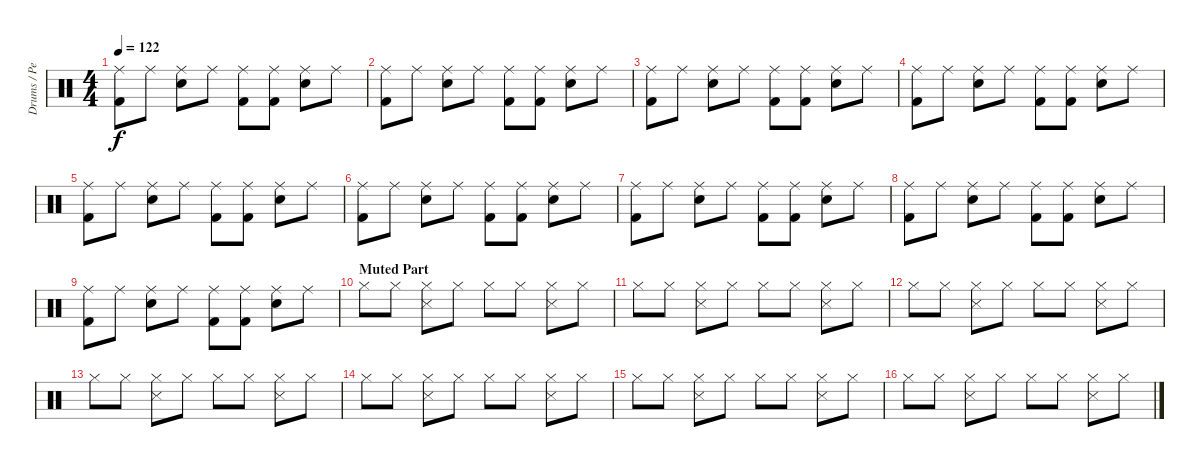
\track ("Drums / Percussion" "Drums / Pe") {instrument percussion}
\staff {score}
\articulation defaults
\ts (4 4)
\tempo 122
\clef neutral
\ks c
("Ride (middle)" "Kick (hit) 2").8{dy f} "Ride (middle)".8 ("Ride (middle)" "Snare (hit) 2").8 "Ride (middle)".8 ("Ride (middle)" "Kick (hit) 2").8 ("Ride (middle)" "Kick (hit) 2").8 ("Ride (middle)" "Snare (hit) 2").8 "Ride (middle)".8 |
("Ride (middle)" "Kick (hit) 2").8 "Ride (middle)".8 ("Ride (middle)" "Snare (hit) 2").8 "Ride (middle)".8 ("Ride (middle)" "Kick (hit) 2").8 ("Ride (middle)" "Kick (hit) 2").8 ("Ride (middle)" "Snare (hit) 2").8 "Ride (middle)".8 |
("Ride (middle)" "Kick (hit) 2").8 "Ride (middle)".8 ("Ride (middle)" "Snare (hit) 2").8 "Ride (middle)".8 ("Ride (middle)" "Kick (hit) 2").8 ("Ride (middle)" "Kick (hit) 2").8 ("Ride (middle)" "Snare (hit) 2").8 "Ride (middle)".8 |
("Ride (middle)" "Kick (hit) 2").8 "Ride (middle)".8 ("Ride (middle)" "Snare (hit) 2").8 "Ride (middle)".8 ("Ride (middle)" "Kick (hit) 2").8 ("Ride (middle)" "Kick (hit) 2").8 ("Ride (middle)" "Snare (hit) 2").8 "Ride (middle)".8 |
("Ride (middle)" "Kick (hit) 2").8 "Ride (middle)".8 ("Ride (middle)" "Snare (hit) 2").8 "Ride (middle)".8 ("Ride (middle)" "Kick (hit) 2").8 ("Ride (middle)" "Kick (hit) 2").8 ("Ride (middle)" "Snare (hit) 2").8 "Ride (middle)".8 |
("Ride (middle)" "Kick (hit) 2").8 "Ride (middle)".8 ("Ride (middle)" "Snare (hit) 2").8 "Ride (middle)".8 ("Ride (middle)" "Kick (hit) 2").8 ("Ride (middle)" "Kick (hit) 2").8 ("Ride (middle)" "Snare (hit) 2").8 "Ride (middle)".8 |
("Ride (middle)" "Kick (hit) 2").8 "Ride (middle)".8 ("Ride (middle)" "Snare (hit) 2").8 "Ride (middle)".8 ("Ride (middle)" "Kick (hit) 2").8 ("Ride (middle)" "Kick (hit) 2").8 ("Ride (middle)" "Snare (hit) 2").8 "Ride (middle)".8 |
("Ride (middle)" "Kick (hit) 2").8 "Ride (middle)".8 ("Ride (middle)" "Snare (hit) 2").8 "Ride (middle)".8 ("Ride (middle)" "Kick (hit) 2").8 ("Ride (middle)" "Kick (hit) 2").8 ("Ride (middle)" "Snare (hit) 2").8 "Ride (middle)".8 |
("Ride (middle)" "Kick (hit) 2").8 "Ride (middle)".8 ("Ride (middle)" "Snare (hit) 2").8 "Ride (middle)".8 ("Ride (middle)" "Kick (hit) 2").8 ("Ride (middle)" "Kick (hit) 2").8 ("Ride (middle)" "Snare (hit) 2").8 "Ride (middle)".8 |
\section ("" "Muted Part")
"Hi-Hat (closed)".8 "Hi-Hat (closed)".8 ("Hi-Hat (closed)" "Snare (side stick) 3").8 "Hi-Hat (closed)".8 "Hi-Hat (closed)".8 "Hi-Hat (closed)".8 ("Hi-Hat (closed)" "Snare (side stick) 3").8 "Hi-Hat (closed)".8 |
"Hi-Hat (closed)".8 "Hi-Hat (closed)".8 ("Hi-Hat (closed)" "Snare (side stick) 3").8 "Hi-Hat (closed)".8 "Hi-Hat (closed)".8 "Hi-Hat (closed)".8 ("Hi-Hat (closed)" "Snare (side stick) 3").8 "Hi-Hat (closed)".8 |
"Hi-Hat (closed)".8 "Hi-Hat (closed)".8 ("Hi-Hat (closed)" "Snare (side stick) 3").8 "Hi-Hat (closed)".8 "Hi-Hat (closed)".8 "Hi-Hat (closed)".8 ("Hi-Hat (closed)" "Snare (side stick) 3").8 "Hi-Hat (closed)".8 |
"Hi-Hat (closed)".8 "Hi-Hat (closed)".8 ("Hi-Hat (closed)" "Snare (side stick) 3").8 "Hi-Hat (closed)".8 "Hi-Hat (closed)".8 "Hi-Hat (closed)".8 ("Hi-Hat (closed)" "Snare (side stick) 3").8 "Hi-Hat (closed)".8 |
"Hi-Hat (closed)".8 "Hi-Hat (closed)".8 ("Hi-Hat (closed)" "Snare (side stick) 3").8 "Hi-Hat (closed)".8 "Hi-Hat (closed)".8 "Hi-Hat (closed)".8 ("Hi-Hat (closed)" "Snare (side stick) 3").8 "Hi-Hat (closed)".8 |
"Hi-Hat (closed)".8 "Hi-Hat (closed)".8 ("Hi-Hat (closed)" "Snare (side stick) 3").8 "Hi-Hat (closed)".8 "Hi-Hat (closed)".8 "Hi-Hat (closed)".8 ("Hi-Hat (closed)" "Snare (side stick) 3").8 "Hi-Hat (closed)".8 |
"Hi-Hat (closed)".8 "Hi-Hat (closed)".8 ("Hi-Hat (closed)" "Snare (side stick) 3").8 "Hi-Hat (closed)".8 "Hi-Hat (closed)".8 "Hi-Hat (closed)".8 ("Hi-Hat (closed)" "Snare (side stick) 3").8 "Hi-Hat (closed)".8
